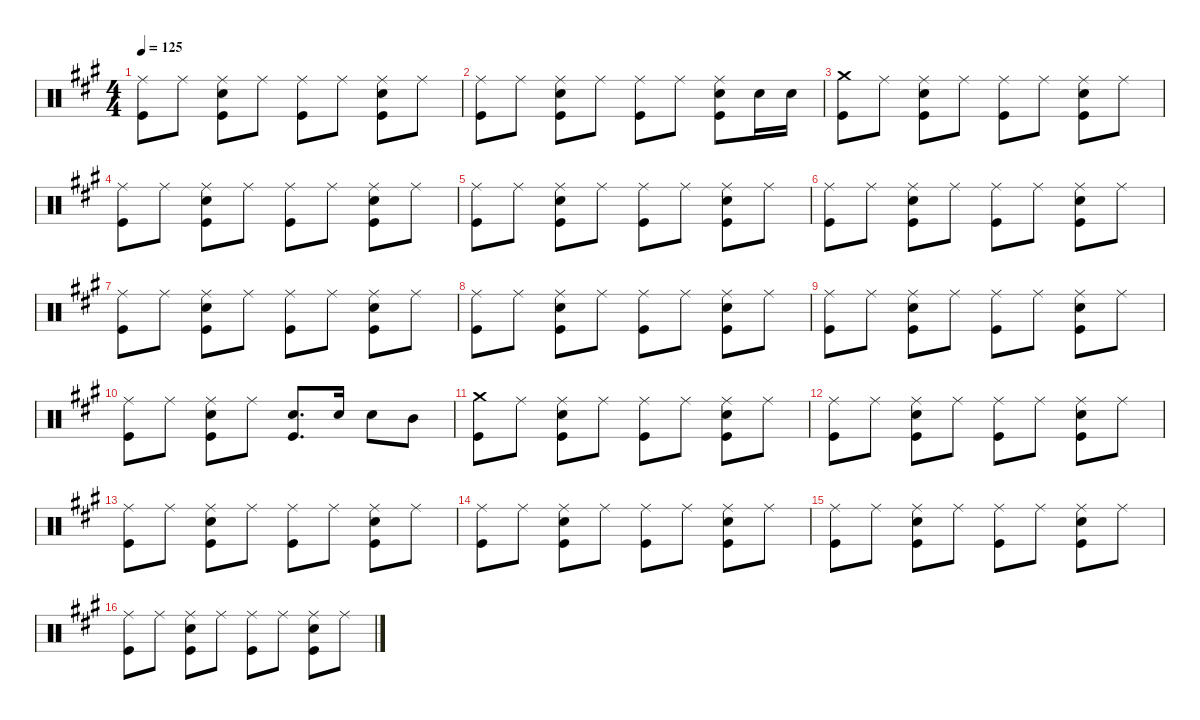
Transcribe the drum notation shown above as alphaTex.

\defaultSystemsLayout 4
\hideDynamics
\bracketExtendMode nobrackets
\singleTrackTrackNamePolicy hidden
\multiTrackTrackNamePolicy hidden
\otherSystemsTrackNameOrientation horizontal
\track ("Drums" "drm.") {instrument percussion}
\staff {score}
\articulation defaults
\ts (4 4)
\tempo 125
\clef neutral
\ks a
("Ride (middle)"{acc forcenatural} "Kick (hit)"{acc forcenatural}).8{dy f beam Down} "Ride (middle)"{acc forcenatural}.8{beam Down} ("Ride (middle)"{acc forcenatural} "Snare (hit) 2"{acc forcenatural} "Kick (hit)"{acc forcenatural}).8{beam Down} "Ride (middle)"{acc forcenatural}.8{beam Down} ("Ride (middle)"{acc forcenatural} "Kick (hit)"{acc forcenatural}).8{beam Down} "Ride (middle)"{acc forcenatural}.8{beam Down} ("Ride (middle)"{acc forcenatural} "Snare (hit) 2"{acc forcenatural} "Kick (hit)"{acc forcenatural}).8{beam Down} "Ride (middle)"{acc forcenatural}.8{beam Down} |
("Ride (middle)"{acc forcenatural} "Kick (hit)"{acc forcenatural}).8{beam Down} "Ride (middle)"{acc forcenatural}.8{beam Down} ("Ride (middle)"{acc forcenatural} "Snare (hit) 2"{acc forcenatural} "Kick (hit)"{acc forcenatural}).8{beam Down} "Ride (middle)"{acc forcenatural}.8{beam Down} ("Ride (middle)"{acc forcenatural} "Kick (hit)"{acc forcenatural}).8{beam Down} "Ride (middle)"{acc forcenatural}.8{beam Down} ("Ride (middle)"{acc forcenatural} "Snare (hit) 2"{acc forcenatural} "Kick (hit)"{acc forcenatural}).8{beam Down} "Snare (hit) 2"{acc forcenatural}.16{beam Down} "Snare (hit) 2"{acc forcenatural}.16{beam Down} |
("Crash medium (hit)"{acc forcenatural} "Kick (hit)"{acc forcenatural}).8{beam Down} "Ride (middle)"{acc forcenatural}.8{beam Down} ("Ride (middle)"{acc forcenatural} "Snare (hit) 2"{acc forcenatural} "Kick (hit)"{acc forcenatural}).8{beam Down} "Ride (middle)"{acc forcenatural}.8{beam Down} ("Ride (middle)"{acc forcenatural} "Kick (hit)"{acc forcenatural}).8{beam Down} "Ride (middle)"{acc forcenatural}.8{beam Down} ("Ride (middle)"{acc forcenatural} "Snare (hit) 2"{acc forcenatural} "Kick (hit)"{acc forcenatural}).8{beam Down} "Ride (middle)"{acc forcenatural}.8{beam Down} |
("Ride (middle)"{acc forcenatural} "Kick (hit)"{acc forcenatural}).8{beam Down} "Ride (middle)"{acc forcenatural}.8{beam Down} ("Ride (middle)"{acc forcenatural} "Snare (hit) 2"{acc forcenatural} "Kick (hit)"{acc forcenatural}).8{beam Down} "Ride (middle)"{acc forcenatural}.8{beam Down} ("Ride (middle)"{acc forcenatural} "Kick (hit)"{acc forcenatural}).8{beam Down} "Ride (middle)"{acc forcenatural}.8{beam Down} ("Ride (middle)"{acc forcenatural} "Snare (hit) 2"{acc forcenatural} "Kick (hit)"{acc forcenatural}).8{beam Down} "Ride (middle)"{acc forcenatural}.8{beam Down} |
("Ride (middle)"{acc forcenatural} "Kick (hit)"{acc forcenatural}).8{beam Down} "Ride (middle)"{acc forcenatural}.8{beam Down} ("Ride (middle)"{acc forcenatural} "Snare (hit) 2"{acc forcenatural} "Kick (hit)"{acc forcenatural}).8{beam Down} "Ride (middle)"{acc forcenatural}.8{beam Down} ("Ride (middle)"{acc forcenatural} "Kick (hit)"{acc forcenatural}).8{beam Down} "Ride (middle)"{acc forcenatural}.8{beam Down} ("Ride (middle)"{acc forcenatural} "Snare (hit) 2"{acc forcenatural} "Kick (hit)"{acc forcenatural}).8{beam Down} "Ride (middle)"{acc forcenatural}.8{beam Down} |
("Ride (middle)"{acc forcenatural} "Kick (hit)"{acc forcenatural}).8{beam Down} "Ride (middle)"{acc forcenatural}.8{beam Down} ("Ride (middle)"{acc forcenatural} "Snare (hit) 2"{acc forcenatural} "Kick (hit)"{acc forcenatural}).8{beam Down} "Ride (middle)"{acc forcenatural}.8{beam Down} ("Ride (middle)"{acc forcenatural} "Kick (hit)"{acc forcenatural}).8{beam Down} "Ride (middle)"{acc forcenatural}.8{beam Down} ("Ride (middle)"{acc forcenatural} "Snare (hit) 2"{acc forcenatural} "Kick (hit)"{acc forcenatural}).8{beam Down} "Ride (middle)"{acc forcenatural}.8{beam Down} |
("Ride (middle)"{acc forcenatural} "Kick (hit)"{acc forcenatural}).8{beam Down} "Ride (middle)"{acc forcenatural}.8{beam Down} ("Ride (middle)"{acc forcenatural} "Snare (hit) 2"{acc forcenatural} "Kick (hit)"{acc forcenatural}).8{beam Down} "Ride (middle)"{acc forcenatural}.8{beam Down} ("Ride (middle)"{acc forcenatural} "Kick (hit)"{acc forcenatural}).8{beam Down} "Ride (middle)"{acc forcenatural}.8{beam Down} ("Ride (middle)"{acc forcenatural} "Snare (hit) 2"{acc forcenatural} "Kick (hit)"{acc forcenatural}).8{beam Down} "Ride (middle)"{acc forcenatural}.8{beam Down} |
("Ride (middle)"{acc forcenatural} "Kick (hit)"{acc forcenatural}).8{beam Down} "Ride (middle)"{acc forcenatural}.8{beam Down} ("Ride (middle)"{acc forcenatural} "Snare (hit) 2"{acc forcenatural} "Kick (hit)"{acc forcenatural}).8{beam Down} "Ride (middle)"{acc forcenatural}.8{beam Down} ("Ride (middle)"{acc forcenatural} "Kick (hit)"{acc forcenatural}).8{beam Down} "Ride (middle)"{acc forcenatural}.8{beam Down} ("Ride (middle)"{acc forcenatural} "Snare (hit) 2"{acc forcenatural} "Kick (hit)"{acc forcenatural}).8{beam Down} "Ride (middle)"{acc forcenatural}.8{beam Down} |
("Ride (middle)"{acc forcenatural} "Kick (hit)"{acc forcenatural}).8{beam Down} "Ride (middle)"{acc forcenatural}.8{beam Down} ("Ride (middle)"{acc forcenatural} "Snare (hit) 2"{acc forcenatural} "Kick (hit)"{acc forcenatural}).8{beam Down} "Ride (middle)"{acc forcenatural}.8{beam Down} ("Ride (middle)"{acc forcenatural} "Kick (hit)"{acc forcenatural}).8{beam Down} "Ride (middle)"{acc forcenatural}.8{beam Down} ("Ride (middle)"{acc forcenatural} "Snare (hit) 2"{acc forcenatural} "Kick (hit)"{acc forcenatural}).8{beam Down} "Ride (middle)"{acc forcenatural}.8{beam Down} |
("Ride (middle)"{acc forcenatural} "Kick (hit)"{acc forcenatural}).8{beam Down} "Ride (middle)"{acc forcenatural}.8{beam Down} ("Ride (middle)"{acc forcenatural} "Snare (hit) 2"{acc forcenatural} "Kick (hit)"{acc forcenatural}).8{beam Down} "Ride (middle)"{acc forcenatural}.8{beam Down} ("Snare (hit) 2"{acc forcenatural} "Kick (hit)"{acc forcenatural}).8{d beam Up} "Snare (hit) 2"{acc forcenatural}.16{beam Up} "Snare (hit) 2"{acc forcenatural}.8{beam Down} "Mid Tom (hit)"{acc forcenatural}.8{beam Down} |
("Crash medium (hit)"{acc forcenatural} "Kick (hit)"{acc forcenatural}).8{beam Down} "Ride (middle)"{acc forcenatural}.8{beam Down} ("Ride (middle)"{acc forcenatural} "Snare (hit) 2"{acc forcenatural} "Kick (hit)"{acc forcenatural}).8{beam Down} "Ride (middle)"{acc forcenatural}.8{beam Down} ("Ride (middle)"{acc forcenatural} "Kick (hit)"{acc forcenatural}).8{beam Down} "Ride (middle)"{acc forcenatural}.8{beam Down} ("Ride (middle)"{acc forcenatural} "Snare (hit) 2"{acc forcenatural} "Kick (hit)"{acc forcenatural}).8{beam Down} "Ride (middle)"{acc forcenatural}.8{beam Down} |
("Ride (middle)"{acc forcenatural} "Kick (hit)"{acc forcenatural}).8{beam Down} "Ride (middle)"{acc forcenatural}.8{beam Down} ("Ride (middle)"{acc forcenatural} "Snare (hit) 2"{acc forcenatural} "Kick (hit)"{acc forcenatural}).8{beam Down} "Ride (middle)"{acc forcenatural}.8{beam Down} ("Ride (middle)"{acc forcenatural} "Kick (hit)"{acc forcenatural}).8{beam Down} "Ride (middle)"{acc forcenatural}.8{beam Down} ("Ride (middle)"{acc forcenatural} "Snare (hit) 2"{acc forcenatural} "Kick (hit)"{acc forcenatural}).8{beam Down} "Ride (middle)"{acc forcenatural}.8{beam Down} |
("Ride (middle)"{acc forcenatural} "Kick (hit)"{acc forcenatural}).8{beam Down} "Ride (middle)"{acc forcenatural}.8{beam Down} ("Ride (middle)"{acc forcenatural} "Snare (hit) 2"{acc forcenatural} "Kick (hit)"{acc forcenatural}).8{beam Down} "Ride (middle)"{acc forcenatural}.8{beam Down} ("Ride (middle)"{acc forcenatural} "Kick (hit)"{acc forcenatural}).8{beam Down} "Ride (middle)"{acc forcenatural}.8{beam Down} ("Ride (middle)"{acc forcenatural} "Snare (hit) 2"{acc forcenatural} "Kick (hit)"{acc forcenatural}).8{beam Down} "Ride (middle)"{acc forcenatural}.8{beam Down} |
("Ride (middle)"{acc forcenatural} "Kick (hit)"{acc forcenatural}).8{beam Down} "Ride (middle)"{acc forcenatural}.8{beam Down} ("Ride (middle)"{acc forcenatural} "Snare (hit) 2"{acc forcenatural} "Kick (hit)"{acc forcenatural}).8{beam Down} "Ride (middle)"{acc forcenatural}.8{beam Down} ("Ride (middle)"{acc forcenatural} "Kick (hit)"{acc forcenatural}).8{beam Down} "Ride (middle)"{acc forcenatural}.8{beam Down} ("Ride (middle)"{acc forcenatural} "Snare (hit) 2"{acc forcenatural} "Kick (hit)"{acc forcenatural}).8{beam Down} "Ride (middle)"{acc forcenatural}.8{beam Down} |
("Ride (middle)"{acc forcenatural} "Kick (hit)"{acc forcenatural}).8{beam Down} "Ride (middle)"{acc forcenatural}.8{beam Down} ("Ride (middle)"{acc forcenatural} "Snare (hit) 2"{acc forcenatural} "Kick (hit)"{acc forcenatural}).8{beam Down} "Ride (middle)"{acc forcenatural}.8{beam Down} ("Ride (middle)"{acc forcenatural} "Kick (hit)"{acc forcenatural}).8{beam Down} "Ride (middle)"{acc forcenatural}.8{beam Down} ("Ride (middle)"{acc forcenatural} "Snare (hit) 2"{acc forcenatural} "Kick (hit)"{acc forcenatural}).8{beam Down} "Ride (middle)"{acc forcenatural}.8{beam Down} |
("Ride (middle)"{acc forcenatural} "Kick (hit)"{acc forcenatural}).8{beam Down} "Ride (middle)"{acc forcenatural}.8{beam Down} ("Ride (middle)"{acc forcenatural} "Snare (hit) 2"{acc forcenatural} "Kick (hit)"{acc forcenatural}).8{beam Down} "Ride (middle)"{acc forcenatural}.8{beam Down} ("Ride (middle)"{acc forcenatural} "Kick (hit)"{acc forcenatural}).8{beam Down} "Ride (middle)"{acc forcenatural}.8{beam Down} ("Ride (middle)"{acc forcenatural} "Snare (hit) 2"{acc forcenatural} "Kick (hit)"{acc forcenatural}).8{beam Down} "Ride (middle)"{acc forcenatural}.8{beam Down}
